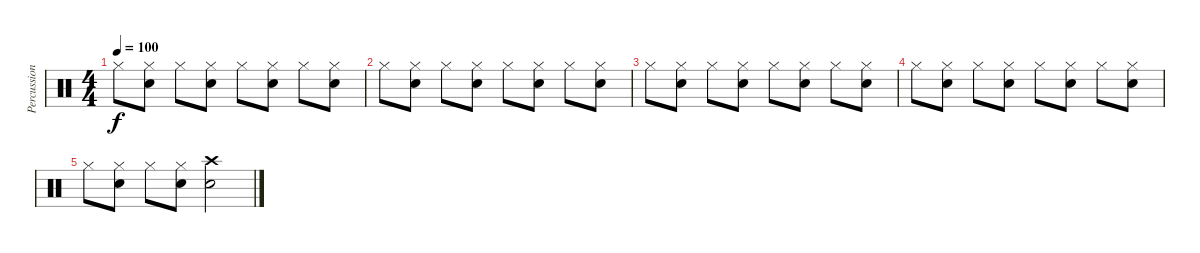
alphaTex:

\track ("Percussion" "Percussion") {instrument percussion}
\staff {score}
\articulation defaults
\ts (4 4)
\tempo 100
\clef neutral
\ks c "Hi-Hat (closed)".8{dy f}
("Hi-Hat (closed)" "Snare (hit) 2").8 "Hi-Hat (closed)".8 ("Hi-Hat (closed)" "Snare (hit) 2").8 "Hi-Hat (closed)".8 ("Hi-Hat (closed)" "Snare (hit) 2").8 "Hi-Hat (closed)".8 ("Hi-Hat (closed)" "Snare (hit) 2").8 |
"Hi-Hat (closed)".8 ("Hi-Hat (closed)" "Snare (hit) 2").8 "Hi-Hat (closed)".8 ("Hi-Hat (closed)" "Snare (hit) 2").8 "Hi-Hat (closed)".8 ("Hi-Hat (closed)" "Snare (hit) 2").8 "Hi-Hat (closed)".8 ("Hi-Hat (closed)" "Snare (hit) 2").8 |
"Hi-Hat (closed)".8 ("Hi-Hat (closed)" "Snare (hit) 2").8 "Hi-Hat (closed)".8 ("Hi-Hat (closed)" "Snare (hit) 2").8 "Hi-Hat (closed)".8 ("Hi-Hat (closed)" "Snare (hit) 2").8 "Hi-Hat (closed)".8 ("Hi-Hat (closed)" "Snare (hit) 2").8 |
"Hi-Hat (closed)".8 ("Hi-Hat (closed)" "Snare (hit) 2").8 "Hi-Hat (closed)".8 ("Hi-Hat (closed)" "Snare (hit) 2").8 "Hi-Hat (closed)".8 ("Hi-Hat (closed)" "Snare (hit) 2").8 "Hi-Hat (closed)".8 ("Hi-Hat (closed)" "Snare (hit) 2").8 |
"Hi-Hat (closed)".8 ("Hi-Hat (closed)" "Snare (hit) 2").8 "Hi-Hat (closed)".8 ("Hi-Hat (closed)" "Snare (hit) 2").8 ("Crash high (hit)" "Snare (hit) 2").2
